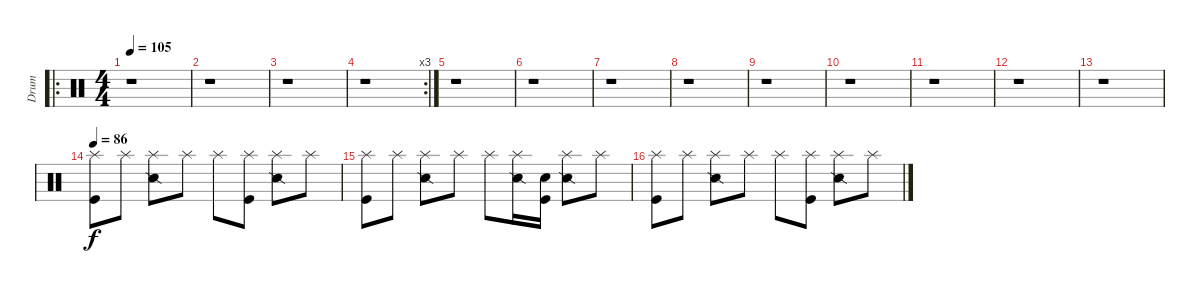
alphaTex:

\track ("Drum" "Drum") {instrument percussion}
\staff {score}
\articulation defaults
\ro
\ts (4 4)
\tempo 105
\clef neutral
\ks c
r.1{dy f} |
r.1 |
r.1 |
\rc 3
r.1 |
r.1 |
r.1 |
r.1 |
r.1 |
r.1 |
r.1 |
r.1 |
r.1 |
r.1 |
\tempo 86
("Splash (hit)" "Kick (hit)").8 "Splash (hit)".8 ("Splash (hit)" "Snare (side stick) 2").8 "Splash (hit)".8 "Splash (hit)".8 ("Splash (hit)" "Kick (hit)").8 ("Splash (hit)" "Snare (side stick) 2").8 "Splash (hit)".8 |
("Splash (hit)" "Kick (hit)").8 "Splash (hit)".8 ("Splash (hit)" "Snare (side stick) 2").8 "Splash (hit)".8 "Splash (hit)".8 ("Splash (hit)" "Snare (side stick) 2").16 ("Snare (hit)" "Kick (hit)").16 ("Splash (hit)" "Snare (side stick) 2").8 "Splash (hit)".8 |
("Splash (hit)" "Kick (hit)").8 "Splash (hit)".8 ("Splash (hit)" "Snare (side stick) 2").8 "Splash (hit)".8 "Splash (hit)".8 ("Splash (hit)" "Kick (hit)").8 ("Splash (hit)" "Snare (side stick) 2").8 "Splash (hit)".8
